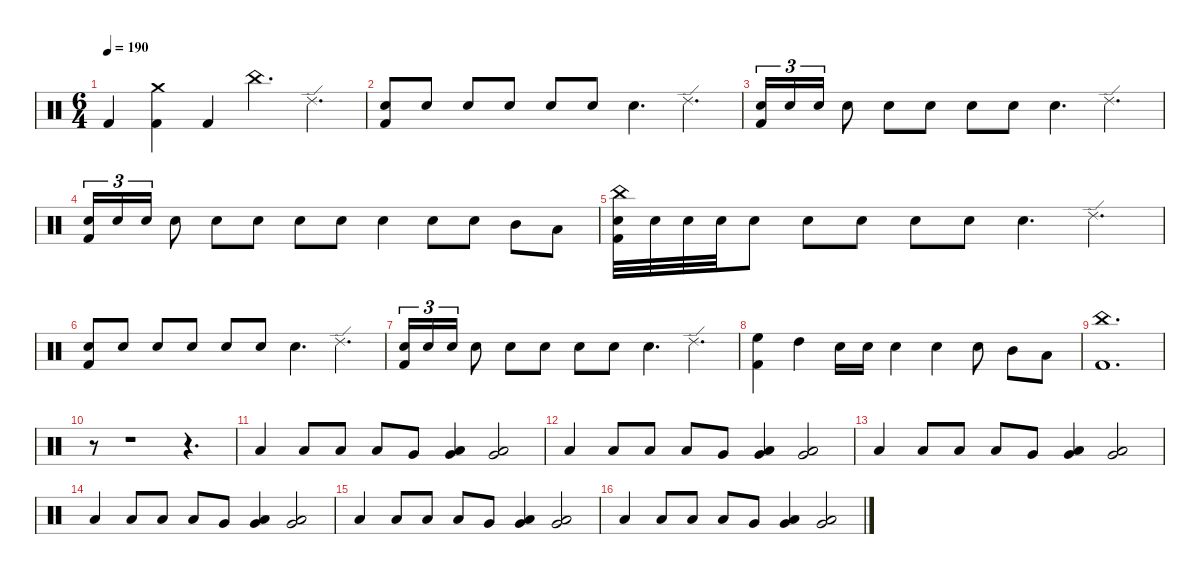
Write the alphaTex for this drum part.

\defaultSystemsLayout 4
\hideDynamics
\bracketExtendMode nobrackets
\singleTrackTrackNamePolicy hidden
\multiTrackTrackNamePolicy hidden
\firstSystemTrackNameMode fullname
\firstSystemTrackNameOrientation horizontal
\otherSystemsTrackNameOrientation horizontal
\track ("Drums" "drm.") {instrument percussion}
\staff {score}
\articulation defaults
\ts (6 4)
\tempo 190
\clef neutral
\ks c "Kick (hit) 2".4{dy f beam Up}
("Crash medium (hit)" "Kick (hit) 2").4{beam Down} "Kick (hit) 2".4{beam Up} "China (hit)".4{d beam Down} "Ride (edge) 2".4{d beam Down} |
("Snare (hit) 2" "Kick (hit) 2").8{dy p beam Up} "Snare (hit) 2".8{beam Up} "Snare (hit) 2".8{beam Up} "Snare (hit) 2".8{dy pp beam Up} "Snare (hit) 2".8{dy p beam Up} "Snare (hit) 2".8{beam Up} "Snare (hit) 2".4{d dy mf beam Down} "Ride (edge) 2".4{d dy f beam Down} |
("Snare (hit) 2" "Kick (hit) 2").16{tu (3 2) dy pp beam Up} "Snare (hit) 2".16{tu (3 2) beam Up} "Snare (hit) 2".16{tu (3 2) dy p beam Up} "Snare (hit) 2".8{beam Down} "Snare (hit) 2".8{beam Down} "Snare (hit) 2".8{dy pp beam Down} "Snare (hit) 2".8{dy p beam Down} "Snare (hit) 2".8{beam Down} "Snare (hit) 2".4{d dy mf beam Down} "Ride (edge) 2".4{d dy f beam Down} |
("Snare (hit) 2" "Kick (hit) 2").16{tu (3 2) dy pp beam Up} "Snare (hit) 2".16{tu (3 2) beam Up} "Snare (hit) 2".16{tu (3 2) dy p beam Up} "Snare (hit) 2".8{beam Down} "Snare (hit) 2".8{beam Down} "Snare (hit) 2".8{dy pp beam Down} "Snare (hit) 2".8{dy p beam Down} "Snare (hit) 2".8{beam Down} "Snare (hit) 2".4{dy mf beam Down} "Snare (hit) 2".8{beam Down} "Snare (hit) 2".8{dy mp beam Down} "Mid Tom (hit)".8{dy f beam Down} "Low Tom (hit)".8{beam Down} |
("China (hit)" "Snare (hit) 2" "Kick (hit) 2").32{beam Down} "Snare (hit) 2".32{dy pp beam Down} "Snare (hit) 2".32{dy p beam Down} "Snare (hit) 2".32{beam Down} "Snare (hit) 2".8{beam Down} "Snare (hit) 2".8{beam Down} "Snare (hit) 2".8{dy pp beam Down} "Snare (hit) 2".8{dy p beam Down} "Snare (hit) 2".8{beam Down} "Snare (hit) 2".4{d dy mf beam Down} "Ride (edge) 2".4{d dy f beam Down} |
("Snare (hit) 2" "Kick (hit) 2").8{dy p beam Up} "Snare (hit) 2".8{beam Up} "Snare (hit) 2".8{beam Up} "Snare (hit) 2".8{dy pp beam Up} "Snare (hit) 2".8{dy p beam Up} "Snare (hit) 2".8{beam Up} "Snare (hit) 2".4{d dy mf beam Down} "Ride (edge) 2".4{d dy f beam Down} |
("Snare (hit) 2" "Kick (hit) 2").16{tu (3 2) dy pp beam Up} "Snare (hit) 2".16{tu (3 2) beam Up} "Snare (hit) 2".16{tu (3 2) dy p beam Up} "Snare (hit) 2".8{beam Down} "Snare (hit) 2".8{beam Down} "Snare (hit) 2".8{dy pp beam Down} "Snare (hit) 2".8{dy p beam Down} "Snare (hit) 2".8{beam Down} "Snare (hit) 2".4{d dy mf beam Down} "Ride (edge) 2".4{d dy f beam Down} |
("High Floor Tom (hit)" "Kick (hit) 2").4{beam Down} "High Tom (hit)".4{beam Down} "Snare (hit) 2".16{dy p beam Down} "Snare (hit) 2".16{beam Down} "Snare (hit) 2".4{dy mp beam Down} "Snare (hit) 2".4{dy f beam Down} "Snare (hit) 2".8{beam Down} "Mid Tom (hit)".8{beam Down} "Low Tom (hit)".8{beam Down} |
("China (hit)" "Kick (hit) 2").1{d beam Down} |
r.8{beam Down} r.1{beam Down} r.4{d beam Down} |
"Low Tom (hit)".4{dy mf beam Up} "Low Tom (hit)".8{dy mp beam Up} "Low Tom (hit)".8{beam Up} "Low Tom (hit)".8{beam Up} "Very Low Tom (hit)".8{beam Up} ("Very Low Tom (hit)" "Low Floor Tom (hit)").4{beam Up} ("Very Low Tom (hit)" "Low Floor Tom (hit)").2{dy mf beam Up} |
"Low Tom (hit)".4{beam Up} "Low Tom (hit)".8{dy mp beam Up} "Low Tom (hit)".8{beam Up} "Low Tom (hit)".8{beam Up} "Very Low Tom (hit)".8{beam Up} ("Very Low Tom (hit)" "Low Floor Tom (hit)").4{beam Up} ("Very Low Tom (hit)" "Low Floor Tom (hit)").2{dy mf beam Up} |
"Low Tom (hit)".4{beam Up} "Low Tom (hit)".8{dy mp beam Up} "Low Tom (hit)".8{beam Up} "Low Tom (hit)".8{beam Up} "Very Low Tom (hit)".8{beam Up} ("Very Low Tom (hit)" "Low Floor Tom (hit)").4{beam Up} ("Very Low Tom (hit)" "Low Floor Tom (hit)").2{dy mf beam Up} |
"Low Tom (hit)".4{beam Up} "Low Tom (hit)".8{dy mp beam Up} "Low Tom (hit)".8{beam Up} "Low Tom (hit)".8{beam Up} "Very Low Tom (hit)".8{beam Up} ("Very Low Tom (hit)" "Low Floor Tom (hit)").4{beam Up} ("Very Low Tom (hit)" "Low Floor Tom (hit)").2{dy mf beam Up} |
"Low Tom (hit)".4{beam Up} "Low Tom (hit)".8{dy mp beam Up} "Low Tom (hit)".8{beam Up} "Low Tom (hit)".8{beam Up} "Very Low Tom (hit)".8{beam Up} ("Very Low Tom (hit)" "Low Floor Tom (hit)").4{beam Up} ("Very Low Tom (hit)" "Low Floor Tom (hit)").2{dy mf beam Up} |
"Low Tom (hit)".4{beam Up} "Low Tom (hit)".8{dy mp beam Up} "Low Tom (hit)".8{beam Up} "Low Tom (hit)".8{beam Up} "Very Low Tom (hit)".8{beam Up} ("Very Low Tom (hit)" "Low Floor Tom (hit)").4{beam Up} ("Very Low Tom (hit)" "Low Floor Tom (hit)").2{dy mf beam Up}
